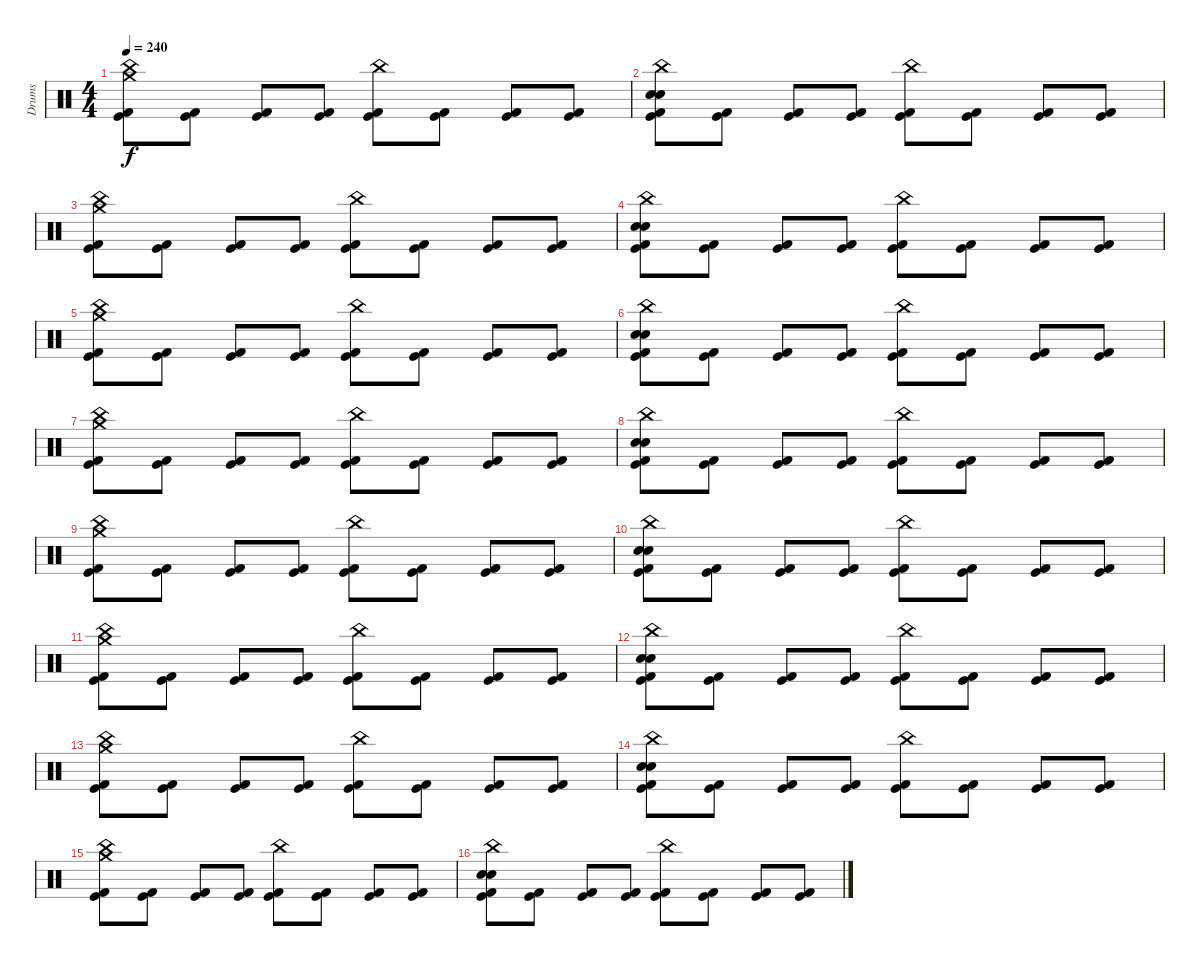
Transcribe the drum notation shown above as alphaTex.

\track ("Drums" "Drums") {instrument percussion bank 10}
\staff {score}
\articulation defaults
\ts (4 4)
\tempo 240
\clef neutral
\ks c
("Crash medium (hit)" "China (hit)" "Kick (hit) 2" "Kick (hit)").8{dy f} ("Kick (hit) 2" "Kick (hit)").8 ("Kick (hit) 2" "Kick (hit)").8 ("Kick (hit) 2" "Kick (hit)").8 ("China (hit)" "Kick (hit) 2" "Kick (hit)").8 ("Kick (hit) 2" "Kick (hit)").8 ("Kick (hit) 2" "Kick (hit)").8 ("Kick (hit) 2" "Kick (hit)").8 |
("China (hit)" "Electric Snare (hit)" "Electric Snare (hit)" "Kick (hit) 2" "Kick (hit)").8 ("Kick (hit) 2" "Kick (hit)").8 ("Kick (hit) 2" "Kick (hit)").8 ("Kick (hit) 2" "Kick (hit)").8 ("China (hit)" "Kick (hit) 2" "Kick (hit)").8 ("Kick (hit) 2" "Kick (hit)").8 ("Kick (hit) 2" "Kick (hit)").8 ("Kick (hit) 2" "Kick (hit)").8 |
("Crash medium (hit)" "China (hit)" "Kick (hit) 2" "Kick (hit)").8 ("Kick (hit) 2" "Kick (hit)").8 ("Kick (hit) 2" "Kick (hit)").8 ("Kick (hit) 2" "Kick (hit)").8 ("China (hit)" "Kick (hit) 2" "Kick (hit)").8 ("Kick (hit) 2" "Kick (hit)").8 ("Kick (hit) 2" "Kick (hit)").8 ("Kick (hit) 2" "Kick (hit)").8 |
("China (hit)" "Electric Snare (hit)" "Electric Snare (hit)" "Kick (hit) 2" "Kick (hit)").8 ("Kick (hit) 2" "Kick (hit)").8 ("Kick (hit) 2" "Kick (hit)").8 ("Kick (hit) 2" "Kick (hit)").8 ("China (hit)" "Kick (hit) 2" "Kick (hit)").8 ("Kick (hit) 2" "Kick (hit)").8 ("Kick (hit) 2" "Kick (hit)").8 ("Kick (hit) 2" "Kick (hit)").8 |
("Crash medium (hit)" "China (hit)" "Kick (hit) 2" "Kick (hit)").8 ("Kick (hit) 2" "Kick (hit)").8 ("Kick (hit) 2" "Kick (hit)").8 ("Kick (hit) 2" "Kick (hit)").8 ("China (hit)" "Kick (hit) 2" "Kick (hit)").8 ("Kick (hit) 2" "Kick (hit)").8 ("Kick (hit) 2" "Kick (hit)").8 ("Kick (hit) 2" "Kick (hit)").8 |
("China (hit)" "Electric Snare (hit)" "Electric Snare (hit)" "Kick (hit) 2" "Kick (hit)").8 ("Kick (hit) 2" "Kick (hit)").8 ("Kick (hit) 2" "Kick (hit)").8 ("Kick (hit) 2" "Kick (hit)").8 ("China (hit)" "Kick (hit) 2" "Kick (hit)").8 ("Kick (hit) 2" "Kick (hit)").8 ("Kick (hit) 2" "Kick (hit)").8 ("Kick (hit) 2" "Kick (hit)").8 |
("Crash medium (hit)" "China (hit)" "Kick (hit) 2" "Kick (hit)").8 ("Kick (hit) 2" "Kick (hit)").8 ("Kick (hit) 2" "Kick (hit)").8 ("Kick (hit) 2" "Kick (hit)").8 ("China (hit)" "Kick (hit) 2" "Kick (hit)").8 ("Kick (hit) 2" "Kick (hit)").8 ("Kick (hit) 2" "Kick (hit)").8 ("Kick (hit) 2" "Kick (hit)").8 |
("China (hit)" "Electric Snare (hit)" "Electric Snare (hit)" "Kick (hit) 2" "Kick (hit)").8 ("Kick (hit) 2" "Kick (hit)").8 ("Kick (hit) 2" "Kick (hit)").8 ("Kick (hit) 2" "Kick (hit)").8 ("China (hit)" "Kick (hit) 2" "Kick (hit)").8 ("Kick (hit) 2" "Kick (hit)").8 ("Kick (hit) 2" "Kick (hit)").8 ("Kick (hit) 2" "Kick (hit)").8 |
("Crash medium (hit)" "China (hit)" "Kick (hit) 2" "Kick (hit)").8 ("Kick (hit) 2" "Kick (hit)").8 ("Kick (hit) 2" "Kick (hit)").8 ("Kick (hit) 2" "Kick (hit)").8 ("China (hit)" "Kick (hit) 2" "Kick (hit)").8 ("Kick (hit) 2" "Kick (hit)").8 ("Kick (hit) 2" "Kick (hit)").8 ("Kick (hit) 2" "Kick (hit)").8 |
("China (hit)" "Electric Snare (hit)" "Electric Snare (hit)" "Kick (hit) 2" "Kick (hit)").8 ("Kick (hit) 2" "Kick (hit)").8 ("Kick (hit) 2" "Kick (hit)").8 ("Kick (hit) 2" "Kick (hit)").8 ("China (hit)" "Kick (hit) 2" "Kick (hit)").8 ("Kick (hit) 2" "Kick (hit)").8 ("Kick (hit) 2" "Kick (hit)").8 ("Kick (hit) 2" "Kick (hit)").8 |
("Crash medium (hit)" "China (hit)" "Kick (hit) 2" "Kick (hit)").8 ("Kick (hit) 2" "Kick (hit)").8 ("Kick (hit) 2" "Kick (hit)").8 ("Kick (hit) 2" "Kick (hit)").8 ("China (hit)" "Kick (hit) 2" "Kick (hit)").8 ("Kick (hit) 2" "Kick (hit)").8 ("Kick (hit) 2" "Kick (hit)").8 ("Kick (hit) 2" "Kick (hit)").8 |
("China (hit)" "Electric Snare (hit)" "Electric Snare (hit)" "Kick (hit) 2" "Kick (hit)").8 ("Kick (hit) 2" "Kick (hit)").8 ("Kick (hit) 2" "Kick (hit)").8 ("Kick (hit) 2" "Kick (hit)").8 ("China (hit)" "Kick (hit) 2" "Kick (hit)").8 ("Kick (hit) 2" "Kick (hit)").8 ("Kick (hit) 2" "Kick (hit)").8 ("Kick (hit) 2" "Kick (hit)").8 |
("Crash medium (hit)" "China (hit)" "Kick (hit) 2" "Kick (hit)").8 ("Kick (hit) 2" "Kick (hit)").8 ("Kick (hit) 2" "Kick (hit)").8 ("Kick (hit) 2" "Kick (hit)").8 ("China (hit)" "Kick (hit) 2" "Kick (hit)").8 ("Kick (hit) 2" "Kick (hit)").8 ("Kick (hit) 2" "Kick (hit)").8 ("Kick (hit) 2" "Kick (hit)").8 |
("China (hit)" "Electric Snare (hit)" "Electric Snare (hit)" "Kick (hit) 2" "Kick (hit)").8 ("Kick (hit) 2" "Kick (hit)").8 ("Kick (hit) 2" "Kick (hit)").8 ("Kick (hit) 2" "Kick (hit)").8 ("China (hit)" "Kick (hit) 2" "Kick (hit)").8 ("Kick (hit) 2" "Kick (hit)").8 ("Kick (hit) 2" "Kick (hit)").8 ("Kick (hit) 2" "Kick (hit)").8 |
("Crash medium (hit)" "China (hit)" "Kick (hit) 2" "Kick (hit)").8 ("Kick (hit) 2" "Kick (hit)").8 ("Kick (hit) 2" "Kick (hit)").8 ("Kick (hit) 2" "Kick (hit)").8 ("China (hit)" "Kick (hit) 2" "Kick (hit)").8 ("Kick (hit) 2" "Kick (hit)").8 ("Kick (hit) 2" "Kick (hit)").8 ("Kick (hit) 2" "Kick (hit)").8 |
("China (hit)" "Electric Snare (hit)" "Electric Snare (hit)" "Kick (hit) 2" "Kick (hit)").8 ("Kick (hit) 2" "Kick (hit)").8 ("Kick (hit) 2" "Kick (hit)").8 ("Kick (hit) 2" "Kick (hit)").8 ("China (hit)" "Kick (hit) 2" "Kick (hit)").8 ("Kick (hit) 2" "Kick (hit)").8 ("Kick (hit) 2" "Kick (hit)").8 ("Kick (hit) 2" "Kick (hit)").8
